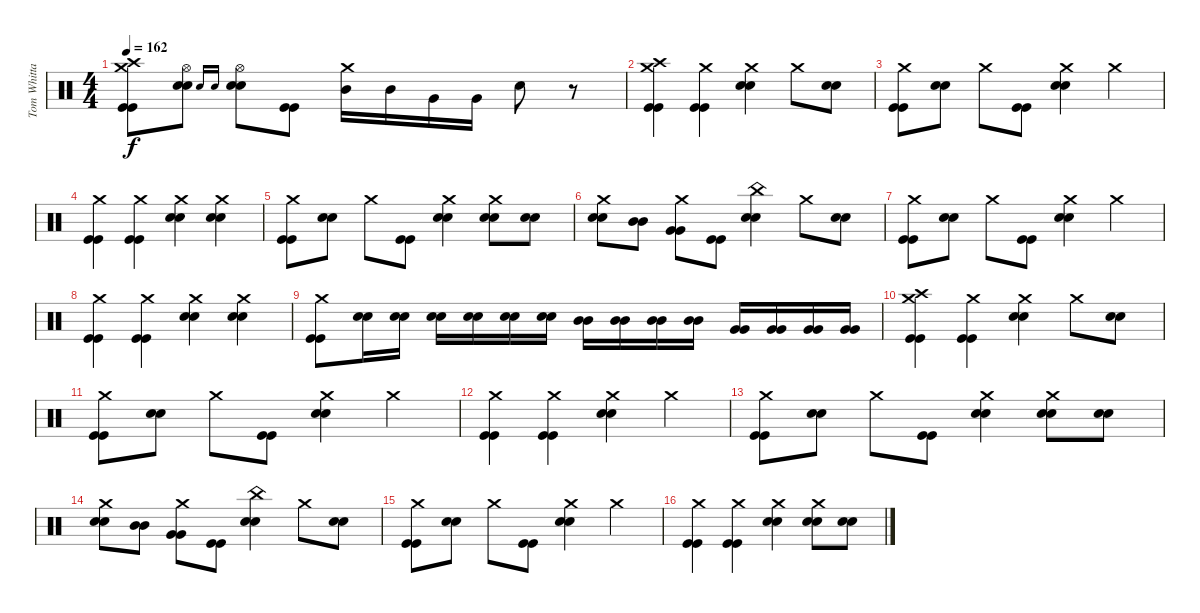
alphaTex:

\track ("Tom Whittaker" "Tom Whitta") {instrument percussion}
\staff {score}
\articulation defaults
\ts (4 4)
\tempo 162
\clef neutral
\ks c
("Crash high (hit)" "Crash medium (hit)" "Kick (hit)" "Kick (hit)").8{dy f} ("Hi-Hat (open)" "Electric Snare (hit)" "Electric Snare (hit)").8 "Electric Snare (hit)".16{gr onbeat} "Electric Snare (hit)".16{gr onbeat} ("Hi-Hat (open)" "Electric Snare (hit)" "Electric Snare (hit)").8 ("Kick (hit)" "Kick (hit)").8 ("Crash medium (hit)" "Mid Tom (hit)").16 "Mid Tom (hit)".16 "Very Low Tom (hit)".16 "Very Low Tom (hit)".16 "Electric Snare (hit)".8 r.8 |
("Crash medium (hit)" "Crash high (hit)" "Kick (hit)" "Kick (hit)").4 ("Crash medium (hit)" "Kick (hit)" "Kick (hit)").4 ("Crash medium (hit)" "Electric Snare (hit)" "Electric Snare (hit)").4 "Crash medium (hit)".8 ("Electric Snare (hit)" "Electric Snare (hit)").8 |
("Crash medium (hit)" "Kick (hit)" "Kick (hit)").8 ("Electric Snare (hit)" "Electric Snare (hit)").8 "Crash medium (hit)".8 ("Kick (hit)" "Kick (hit)").8 ("Crash medium (hit)" "Electric Snare (hit)" "Electric Snare (hit)").4 "Crash medium (hit)".4 |
("Crash medium (hit)" "Kick (hit)" "Kick (hit)").4 ("Crash medium (hit)" "Kick (hit)" "Kick (hit)").4 ("Crash medium (hit)" "Electric Snare (hit)" "Electric Snare (hit)").4 ("Crash medium (hit)" "Electric Snare (hit)" "Electric Snare (hit)").4 |
("Crash medium (hit)" "Kick (hit)" "Kick (hit)").8 ("Electric Snare (hit)" "Electric Snare (hit)").8 "Crash medium (hit)".8 ("Kick (hit)" "Kick (hit)").8 ("Crash medium (hit)" "Electric Snare (hit)" "Electric Snare (hit)").4 ("Crash medium (hit)" "Electric Snare (hit)" "Electric Snare (hit)").8 ("Electric Snare (hit)" "Electric Snare (hit)").8 |
("Crash medium (hit)" "Electric Snare (hit)" "Electric Snare (hit)").8 ("Mid Tom (hit)" "Mid Tom (hit)").8 ("Crash medium (hit)" "Very Low Tom (hit)" "Very Low Tom (hit)").8 ("Kick (hit)" "Kick (hit)").8 ("China (hit)" "Electric Snare (hit)" "Electric Snare (hit)").4 "Crash medium (hit)".8 ("Electric Snare (hit)" "Electric Snare (hit)").8 |
("Crash medium (hit)" "Kick (hit)" "Kick (hit)").8 ("Electric Snare (hit)" "Electric Snare (hit)").8 "Crash medium (hit)".8 ("Kick (hit)" "Kick (hit)").8 ("Crash medium (hit)" "Electric Snare (hit)" "Electric Snare (hit)").4 "Crash medium (hit)".4 |
("Crash medium (hit)" "Kick (hit)" "Kick (hit)").4 ("Crash medium (hit)" "Kick (hit)" "Kick (hit)").4 ("Crash medium (hit)" "Electric Snare (hit)" "Electric Snare (hit)").4 ("Crash medium (hit)" "Electric Snare (hit)" "Electric Snare (hit)").4 |
("Crash medium (hit)" "Kick (hit)" "Kick (hit)").8 ("Electric Snare (hit)" "Electric Snare (hit)").16 ("Electric Snare (hit)" "Electric Snare (hit)").16 ("Electric Snare (hit)" "Electric Snare (hit)").16 ("Electric Snare (hit)" "Electric Snare (hit)").16 ("Electric Snare (hit)" "Electric Snare (hit)").16 ("Electric Snare (hit)" "Electric Snare (hit)").16 ("Mid Tom (hit)" "Mid Tom (hit)").16 ("Mid Tom (hit)" "Mid Tom (hit)").16 ("Mid Tom (hit)" "Mid Tom (hit)").16 ("Mid Tom (hit)" "Mid Tom (hit)").16 ("Very Low Tom (hit)" "Very Low Tom (hit)").16 ("Very Low Tom (hit)" "Very Low Tom (hit)").16 ("Very Low Tom (hit)" "Very Low Tom (hit)").16 ("Very Low Tom (hit)" "Very Low Tom (hit)").16 |
("Crash medium (hit)" "Crash high (hit)" "Kick (hit)" "Kick (hit)").4 ("Crash medium (hit)" "Kick (hit)" "Kick (hit)").4 ("Crash medium (hit)" "Electric Snare (hit)" "Electric Snare (hit)").4 "Crash medium (hit)".8 ("Electric Snare (hit)" "Electric Snare (hit)").8 |
("Crash medium (hit)" "Kick (hit)" "Kick (hit)").8 ("Electric Snare (hit)" "Electric Snare (hit)").8 "Crash medium (hit)".8 ("Kick (hit)" "Kick (hit)").8 ("Crash medium (hit)" "Electric Snare (hit)" "Electric Snare (hit)").4 "Crash medium (hit)".4 |
("Crash medium (hit)" "Kick (hit)" "Kick (hit)").4 ("Crash medium (hit)" "Kick (hit)" "Kick (hit)").4 ("Crash medium (hit)" "Electric Snare (hit)" "Electric Snare (hit)").4 "Crash medium (hit)".4 |
("Crash medium (hit)" "Kick (hit)" "Kick (hit)").8 ("Electric Snare (hit)" "Electric Snare (hit)").8 "Crash medium (hit)".8 ("Kick (hit)" "Kick (hit)").8 ("Crash medium (hit)" "Electric Snare (hit)" "Electric Snare (hit)").4 ("Crash medium (hit)" "Electric Snare (hit)" "Electric Snare (hit)").8 ("Electric Snare (hit)" "Electric Snare (hit)").8 |
("Crash medium (hit)" "Electric Snare (hit)" "Electric Snare (hit)").8 ("Mid Tom (hit)" "Mid Tom (hit)").8 ("Crash medium (hit)" "Very Low Tom (hit)" "Very Low Tom (hit)").8 ("Kick (hit)" "Kick (hit)").8 ("China (hit)" "Electric Snare (hit)" "Electric Snare (hit)").4 "Crash medium (hit)".8 ("Electric Snare (hit)" "Electric Snare (hit)").8 |
("Crash medium (hit)" "Kick (hit)" "Kick (hit)").8 ("Electric Snare (hit)" "Electric Snare (hit)").8 "Crash medium (hit)".8 ("Kick (hit)" "Kick (hit)").8 ("Crash medium (hit)" "Electric Snare (hit)" "Electric Snare (hit)").4 "Crash medium (hit)".4 |
("Crash medium (hit)" "Kick (hit)" "Kick (hit)").4 ("Crash medium (hit)" "Kick (hit)" "Kick (hit)").4 ("Crash medium (hit)" "Electric Snare (hit)" "Electric Snare (hit)").4 ("Crash medium (hit)" "Electric Snare (hit)" "Electric Snare (hit)").8 ("Electric Snare (hit)" "Electric Snare (hit)").8
